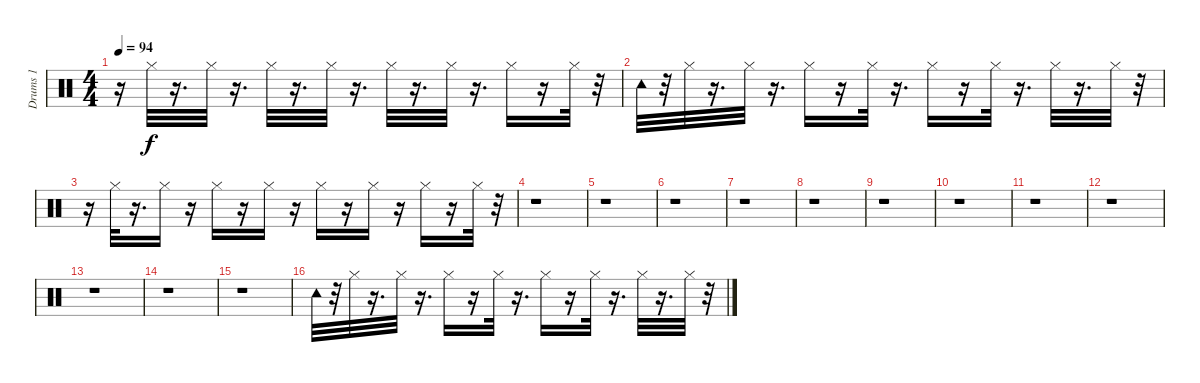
\track ("Drums 1 " "Drums 1 ") {instrument percussion}
\staff {score}
\articulation defaults
\ts (4 4)
\tempo 94
\clef neutral
\ks c
r.16{dy f} "Hi-Hat (closed)".32 r.16{d} "Hi-Hat (closed)".32 r.16{d} "Hi-Hat (closed)".32 r.16{d} "Hi-Hat (closed)".32 r.16{d} "Hi-Hat (closed)".32 r.16{d} "Hi-Hat (closed)".32 r.16{d} "Hi-Hat (closed)".16 r.16 "Hi-Hat (closed)".32 r.32 |
"Tambourine (hit)".32 r.32 "Hi-Hat (closed)".32 r.16{d} "Hi-Hat (closed)".32 r.16{d} "Hi-Hat (closed)".16 r.16 "Hi-Hat (closed)".32 r.16{d} "Hi-Hat (closed)".16 r.16 "Hi-Hat (closed)".32 r.16{d} "Hi-Hat (closed)".32 r.16{d} "Hi-Hat (closed)".32 r.32 |
r.16 "Hi-Hat (closed)".32 r.16{d} "Hi-Hat (closed)".16 r.16 "Hi-Hat (closed)".16 r.16 "Hi-Hat (closed)".16 r.16 "Hi-Hat (closed)".16 r.16 "Hi-Hat (closed)".16 r.16 "Hi-Hat (closed)".16 r.16 "Hi-Hat (closed)".32 r.32 |
r.1 |
r.1 |
r.1 |
r.1 |
r.1 |
r.1 |
r.1 |
r.1 |
r.1 |
r.1 |
r.1 |
r.1 |
"Tambourine (hit)".32 r.32 "Hi-Hat (closed)".32 r.16{d} "Hi-Hat (closed)".32 r.16{d} "Hi-Hat (closed)".16 r.16 "Hi-Hat (closed)".32 r.16{d} "Hi-Hat (closed)".16 r.16 "Hi-Hat (closed)".32 r.16{d} "Hi-Hat (closed)".32 r.16{d} "Hi-Hat (closed)".32 r.32
